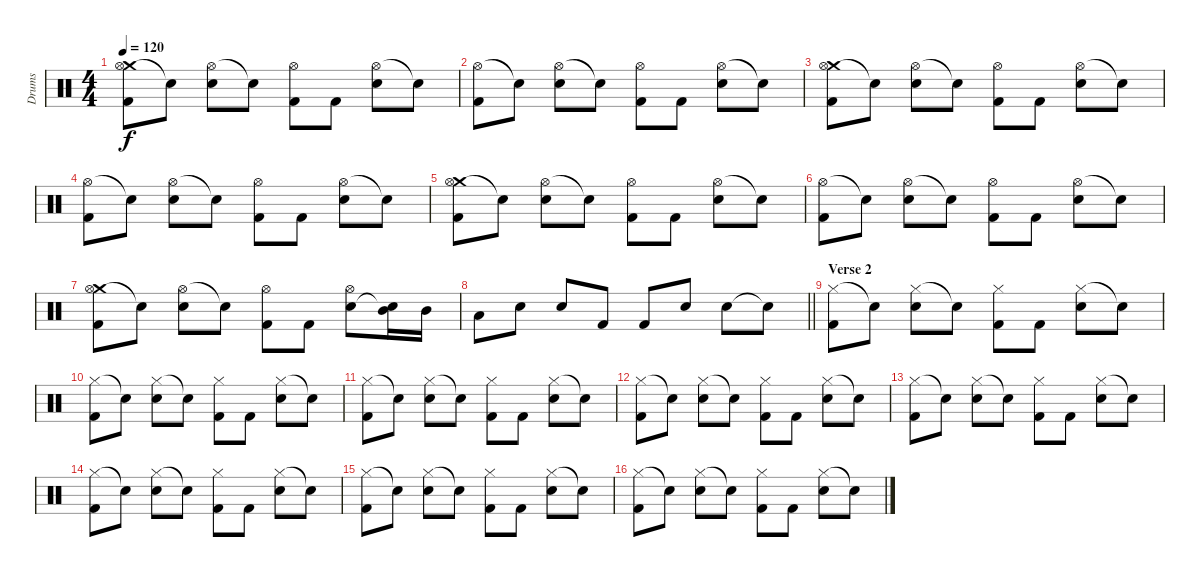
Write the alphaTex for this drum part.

\track ("Drums" "Drums") {instrument percussion}
\staff {score}
\articulation defaults
\ts (4 4)
\tempo 120
\clef neutral
\ks c
("Crash medium (hit)" "Hi-Hat (open)" "Kick (hit) 2").8{dy f} "Snare (hit)"{t}.8 ("Hi-Hat (open)" "Electric Snare (hit)").8 "Snare (hit)"{t}.8 ("Hi-Hat (open)" "Kick (hit) 2").8 "Kick (hit) 2".8 ("Hi-Hat (open)" "Electric Snare (hit)").8 "Snare (hit)"{t}.8 |
("Hi-Hat (open)" "Kick (hit) 2").8 "Snare (hit)"{t}.8 ("Hi-Hat (open)" "Electric Snare (hit)").8 "Snare (hit)"{t}.8 ("Hi-Hat (open)" "Kick (hit) 2").8 "Kick (hit) 2".8 ("Hi-Hat (open)" "Electric Snare (hit)").8 "Snare (hit)"{t}.8 |
("Crash medium (hit)" "Hi-Hat (open)" "Kick (hit) 2").8 "Snare (hit)"{t}.8 ("Hi-Hat (open)" "Electric Snare (hit)").8 "Snare (hit)"{t}.8 ("Hi-Hat (open)" "Kick (hit) 2").8 "Kick (hit) 2".8 ("Hi-Hat (open)" "Electric Snare (hit)").8 "Snare (hit)"{t}.8 |
("Hi-Hat (open)" "Kick (hit) 2").8 "Snare (hit)"{t}.8 ("Hi-Hat (open)" "Electric Snare (hit)").8 "Snare (hit)"{t}.8 ("Hi-Hat (open)" "Kick (hit) 2").8 "Kick (hit) 2".8 ("Hi-Hat (open)" "Electric Snare (hit)").8 "Snare (hit)"{t}.8 |
("Crash medium (hit)" "Hi-Hat (open)" "Kick (hit) 2").8 "Snare (hit)"{t}.8 ("Hi-Hat (open)" "Electric Snare (hit)").8 "Snare (hit)"{t}.8 ("Hi-Hat (open)" "Kick (hit) 2").8 "Kick (hit) 2".8 ("Hi-Hat (open)" "Electric Snare (hit)").8 "Snare (hit)"{t}.8 |
("Hi-Hat (open)" "Kick (hit) 2").8 "Snare (hit)"{t}.8 ("Hi-Hat (open)" "Electric Snare (hit)").8 "Snare (hit)"{t}.8 ("Hi-Hat (open)" "Kick (hit) 2").8 "Kick (hit) 2".8 ("Hi-Hat (open)" "Electric Snare (hit)").8 "Snare (hit)"{t}.8 |
("Crash medium (hit)" "Hi-Hat (open)" "Kick (hit) 2").8 "Snare (hit)"{t}.8 ("Hi-Hat (open)" "Electric Snare (hit)").8 "Snare (hit)"{t}.8 ("Hi-Hat (open)" "Kick (hit) 2").8 "Kick (hit) 2".8 ("Hi-Hat (open)" "Electric Snare (hit)").8 ("Mid Tom (hit)" "Snare (hit)"{t}).16 "Mid Tom (hit)".16 |
\barLineRight lightlight "Low Tom (hit)".8 "Electric Snare (hit)".8 "Electric Snare (hit)".8 "Kick (hit) 2".8 "Kick (hit) 2".8 "Electric Snare (hit)".8 "Electric Snare (hit)".8 "Snare (hit)"{t}.8
|
\section ("" "Verse 2")
("Hi-Hat (closed)" "Kick (hit) 2").8 "Snare (hit)"{t}.8 ("Hi-Hat (closed)" "Electric Snare (hit)").8 "Snare (hit)"{t}.8 ("Hi-Hat (closed)" "Kick (hit) 2").8 "Kick (hit) 2".8 ("Hi-Hat (closed)" "Electric Snare (hit)").8 "Snare (hit)"{t}.8 |
("Hi-Hat (closed)" "Kick (hit) 2").8 "Snare (hit)"{t}.8 ("Hi-Hat (closed)" "Electric Snare (hit)").8 "Snare (hit)"{t}.8 ("Hi-Hat (closed)" "Kick (hit) 2").8 "Kick (hit) 2".8 ("Hi-Hat (closed)" "Electric Snare (hit)").8 "Snare (hit)"{t}.8 |
("Hi-Hat (closed)" "Kick (hit) 2").8 "Snare (hit)"{t}.8 ("Hi-Hat (closed)" "Electric Snare (hit)").8 "Snare (hit)"{t}.8 ("Hi-Hat (closed)" "Kick (hit) 2").8 "Kick (hit) 2".8 ("Hi-Hat (closed)" "Electric Snare (hit)").8 "Snare (hit)"{t}.8 |
("Hi-Hat (closed)" "Kick (hit) 2").8 "Snare (hit)"{t}.8 ("Hi-Hat (closed)" "Electric Snare (hit)").8 "Snare (hit)"{t}.8 ("Hi-Hat (closed)" "Kick (hit) 2").8 "Kick (hit) 2".8 ("Hi-Hat (closed)" "Electric Snare (hit)").8 "Snare (hit)"{t}.8 |
("Hi-Hat (closed)" "Kick (hit) 2").8 "Snare (hit)"{t}.8 ("Hi-Hat (closed)" "Electric Snare (hit)").8 "Snare (hit)"{t}.8 ("Hi-Hat (closed)" "Kick (hit) 2").8 "Kick (hit) 2".8 ("Hi-Hat (closed)" "Electric Snare (hit)").8 "Snare (hit)"{t}.8 |
("Hi-Hat (closed)" "Kick (hit) 2").8 "Snare (hit)"{t}.8 ("Hi-Hat (closed)" "Electric Snare (hit)").8 "Snare (hit)"{t}.8 ("Hi-Hat (closed)" "Kick (hit) 2").8 "Kick (hit) 2".8 ("Hi-Hat (closed)" "Electric Snare (hit)").8 "Snare (hit)"{t}.8 |
("Hi-Hat (closed)" "Kick (hit) 2").8 "Snare (hit)"{t}.8 ("Hi-Hat (closed)" "Electric Snare (hit)").8 "Snare (hit)"{t}.8 ("Hi-Hat (closed)" "Kick (hit) 2").8 "Kick (hit) 2".8 ("Hi-Hat (closed)" "Electric Snare (hit)").8 "Snare (hit)"{t}.8 |
("Hi-Hat (closed)" "Kick (hit) 2").8 "Snare (hit)"{t}.8 ("Hi-Hat (closed)" "Electric Snare (hit)").8 "Snare (hit)"{t}.8 ("Hi-Hat (closed)" "Kick (hit) 2").8 "Kick (hit) 2".8 ("Hi-Hat (closed)" "Electric Snare (hit)").8 "Snare (hit)"{t}.8
